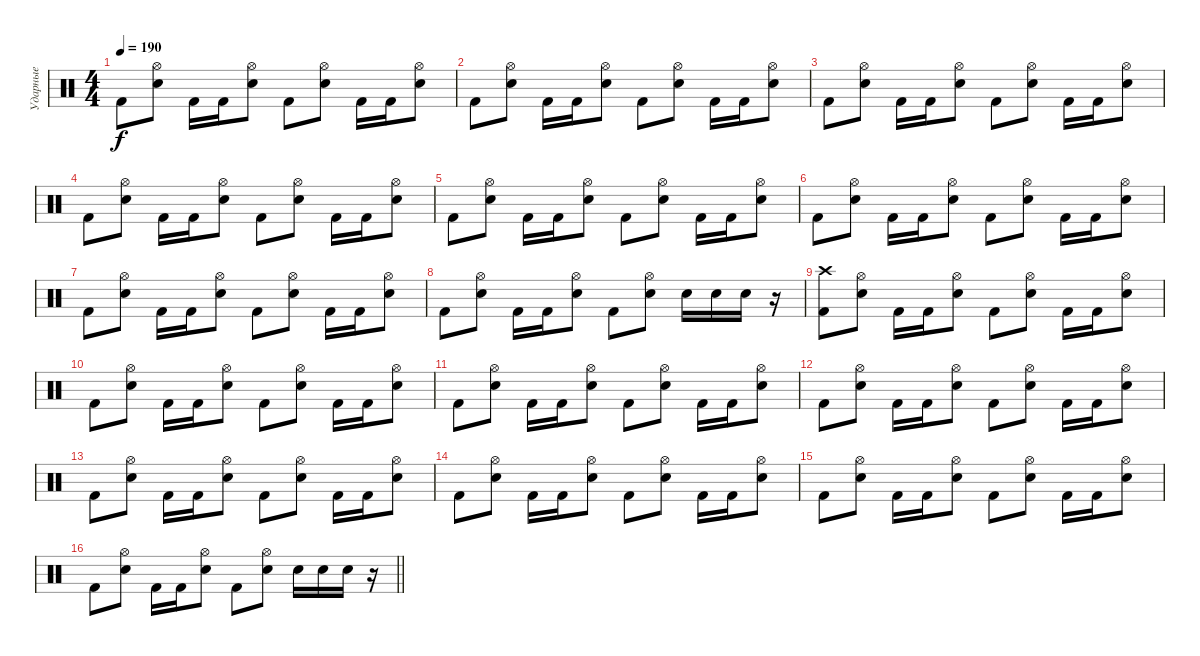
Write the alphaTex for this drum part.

\track ("Ударные" "Ударные") {instrument percussion}
\staff {score}
\articulation defaults
\ts (4 4)
\tempo 190
\clef neutral
\ks c "Kick (hit) 2".8{dy f}
("Hi-Hat (open)" "Electric Snare (hit)").8 "Kick (hit) 2".16 "Kick (hit) 2".16 ("Hi-Hat (open)" "Electric Snare (hit)").8 "Kick (hit) 2".8 ("Hi-Hat (open)" "Electric Snare (hit)").8 "Kick (hit) 2".16 "Kick (hit) 2".16 ("Hi-Hat (open)" "Electric Snare (hit)").8 |
"Kick (hit) 2".8 ("Hi-Hat (open)" "Electric Snare (hit)").8 "Kick (hit) 2".16 "Kick (hit) 2".16 ("Hi-Hat (open)" "Electric Snare (hit)").8 "Kick (hit) 2".8 ("Hi-Hat (open)" "Electric Snare (hit)").8 "Kick (hit) 2".16 "Kick (hit) 2".16 ("Hi-Hat (open)" "Electric Snare (hit)").8 |
"Kick (hit) 2".8 ("Hi-Hat (open)" "Electric Snare (hit)").8 "Kick (hit) 2".16 "Kick (hit) 2".16 ("Hi-Hat (open)" "Electric Snare (hit)").8 "Kick (hit) 2".8 ("Hi-Hat (open)" "Electric Snare (hit)").8 "Kick (hit) 2".16 "Kick (hit) 2".16 ("Hi-Hat (open)" "Electric Snare (hit)").8 |
"Kick (hit) 2".8 ("Hi-Hat (open)" "Electric Snare (hit)").8 "Kick (hit) 2".16 "Kick (hit) 2".16 ("Hi-Hat (open)" "Electric Snare (hit)").8 "Kick (hit) 2".8 ("Hi-Hat (open)" "Electric Snare (hit)").8 "Kick (hit) 2".16 "Kick (hit) 2".16 ("Hi-Hat (open)" "Electric Snare (hit)").8 |
"Kick (hit) 2".8 ("Hi-Hat (open)" "Electric Snare (hit)").8 "Kick (hit) 2".16 "Kick (hit) 2".16 ("Hi-Hat (open)" "Electric Snare (hit)").8 "Kick (hit) 2".8 ("Hi-Hat (open)" "Electric Snare (hit)").8 "Kick (hit) 2".16 "Kick (hit) 2".16 ("Hi-Hat (open)" "Electric Snare (hit)").8 |
"Kick (hit) 2".8 ("Hi-Hat (open)" "Electric Snare (hit)").8 "Kick (hit) 2".16 "Kick (hit) 2".16 ("Hi-Hat (open)" "Electric Snare (hit)").8 "Kick (hit) 2".8 ("Hi-Hat (open)" "Electric Snare (hit)").8 "Kick (hit) 2".16 "Kick (hit) 2".16 ("Hi-Hat (open)" "Electric Snare (hit)").8 |
"Kick (hit) 2".8 ("Hi-Hat (open)" "Electric Snare (hit)").8 "Kick (hit) 2".16 "Kick (hit) 2".16 ("Hi-Hat (open)" "Electric Snare (hit)").8 "Kick (hit) 2".8 ("Hi-Hat (open)" "Electric Snare (hit)").8 "Kick (hit) 2".16 "Kick (hit) 2".16 ("Hi-Hat (open)" "Electric Snare (hit)").8 |
"Kick (hit) 2".8 ("Hi-Hat (open)" "Electric Snare (hit)").8 "Kick (hit) 2".16 "Kick (hit) 2".16 ("Hi-Hat (open)" "Electric Snare (hit)").8 "Kick (hit) 2".8 ("Hi-Hat (open)" "Electric Snare (hit)").8 "Electric Snare (hit)".16 "Electric Snare (hit)".16 "Electric Snare (hit)".16 r.16 |
("Crash high (hit)" "Kick (hit) 2").8 ("Hi-Hat (open)" "Electric Snare (hit)").8 "Kick (hit) 2".16 "Kick (hit) 2".16 ("Hi-Hat (open)" "Electric Snare (hit)").8 "Kick (hit) 2".8 ("Hi-Hat (open)" "Electric Snare (hit)").8 "Kick (hit) 2".16 "Kick (hit) 2".16 ("Hi-Hat (open)" "Electric Snare (hit)").8 |
"Kick (hit) 2".8 ("Hi-Hat (open)" "Electric Snare (hit)").8 "Kick (hit) 2".16 "Kick (hit) 2".16 ("Hi-Hat (open)" "Electric Snare (hit)").8 "Kick (hit) 2".8 ("Hi-Hat (open)" "Electric Snare (hit)").8 "Kick (hit) 2".16 "Kick (hit) 2".16 ("Hi-Hat (open)" "Electric Snare (hit)").8 |
"Kick (hit) 2".8 ("Hi-Hat (open)" "Electric Snare (hit)").8 "Kick (hit) 2".16 "Kick (hit) 2".16 ("Hi-Hat (open)" "Electric Snare (hit)").8 "Kick (hit) 2".8 ("Hi-Hat (open)" "Electric Snare (hit)").8 "Kick (hit) 2".16 "Kick (hit) 2".16 ("Hi-Hat (open)" "Electric Snare (hit)").8 |
"Kick (hit) 2".8 ("Hi-Hat (open)" "Electric Snare (hit)").8 "Kick (hit) 2".16 "Kick (hit) 2".16 ("Hi-Hat (open)" "Electric Snare (hit)").8 "Kick (hit) 2".8 ("Hi-Hat (open)" "Electric Snare (hit)").8 "Kick (hit) 2".16 "Kick (hit) 2".16 ("Hi-Hat (open)" "Electric Snare (hit)").8 |
"Kick (hit) 2".8 ("Hi-Hat (open)" "Electric Snare (hit)").8 "Kick (hit) 2".16 "Kick (hit) 2".16 ("Hi-Hat (open)" "Electric Snare (hit)").8 "Kick (hit) 2".8 ("Hi-Hat (open)" "Electric Snare (hit)").8 "Kick (hit) 2".16 "Kick (hit) 2".16 ("Hi-Hat (open)" "Electric Snare (hit)").8 |
"Kick (hit) 2".8 ("Hi-Hat (open)" "Electric Snare (hit)").8 "Kick (hit) 2".16 "Kick (hit) 2".16 ("Hi-Hat (open)" "Electric Snare (hit)").8 "Kick (hit) 2".8 ("Hi-Hat (open)" "Electric Snare (hit)").8 "Kick (hit) 2".16 "Kick (hit) 2".16 ("Hi-Hat (open)" "Electric Snare (hit)").8 |
"Kick (hit) 2".8 ("Hi-Hat (open)" "Electric Snare (hit)").8 "Kick (hit) 2".16 "Kick (hit) 2".16 ("Hi-Hat (open)" "Electric Snare (hit)").8 "Kick (hit) 2".8 ("Hi-Hat (open)" "Electric Snare (hit)").8 "Kick (hit) 2".16 "Kick (hit) 2".16 ("Hi-Hat (open)" "Electric Snare (hit)").8 |
\barLineRight lightlight "Kick (hit) 2".8
("Hi-Hat (open)" "Electric Snare (hit)").8 "Kick (hit) 2".16 "Kick (hit) 2".16 ("Hi-Hat (open)" "Electric Snare (hit)").8 "Kick (hit) 2".8 ("Hi-Hat (open)" "Electric Snare (hit)").8 "Electric Snare (hit)".16 "Electric Snare (hit)".16 "Electric Snare (hit)".16 r.16
